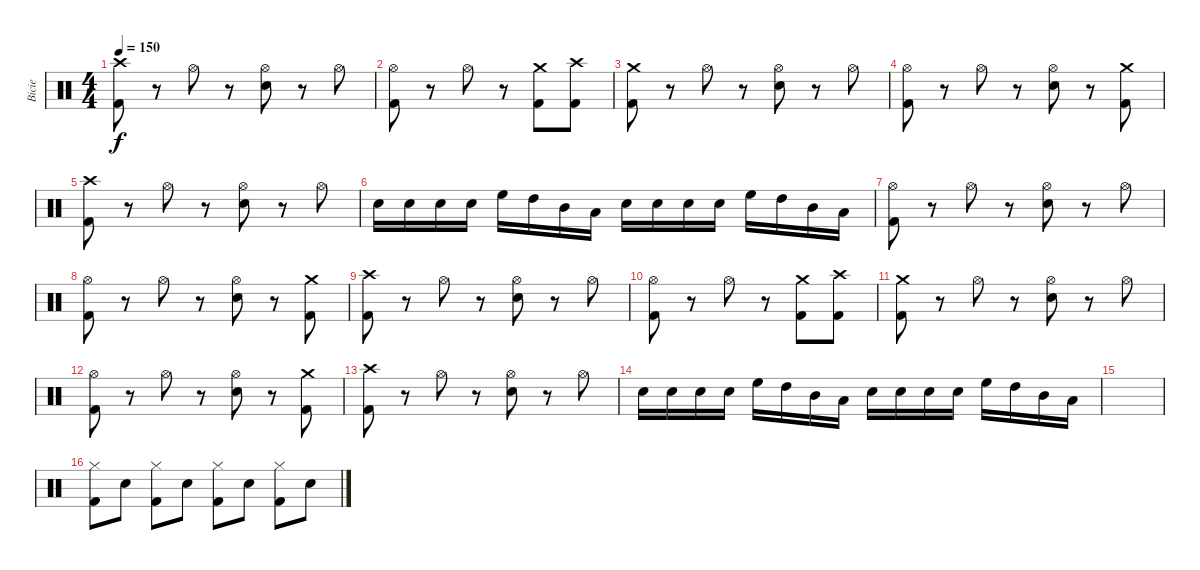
\track ("Bicie" "Bicie") {instrument percussion}
\staff {score}
\articulation defaults
\ts (4 4)
\tempo 150
\clef neutral
\ks c
("Crash high (hit)" "Kick (hit) 2").8{dy f} r.8 "Hi-Hat (open)".8 r.8 ("Hi-Hat (open)" "Snare (hit) 2").8 r.8 "Hi-Hat (open)".8 |
("Hi-Hat (open)" "Kick (hit) 2").8 r.8 "Hi-Hat (open)".8 r.8 ("Crash medium (hit)" "Kick (hit) 2").8 ("Crash high (hit)" "Kick (hit) 2").8 |
("Crash medium (hit)" "Kick (hit) 2").8 r.8 "Hi-Hat (open)".8 r.8 ("Hi-Hat (open)" "Snare (hit) 2").8 r.8 "Hi-Hat (open)".8 |
("Hi-Hat (open)" "Kick (hit) 2").8 r.8 "Hi-Hat (open)".8 r.8 ("Hi-Hat (open)" "Snare (hit) 2").8 r.8 ("Crash medium (hit)" "Kick (hit) 2").8 |
("Crash high (hit)" "Kick (hit) 2").8 r.8 "Hi-Hat (open)".8 r.8 ("Hi-Hat (open)" "Snare (hit) 2").8 r.8 "Hi-Hat (open)".8 |
"Snare (hit) 2".16 "Snare (hit) 2".16 "Snare (hit) 2".16 "Snare (hit) 2".16 "High Floor Tom (hit)".16 "High Tom (hit)".16 "Mid Tom (hit)".16 "Low Tom (hit)".16 "Snare (hit) 2".16 "Snare (hit) 2".16 "Snare (hit) 2".16 "Snare (hit) 2".16 "High Floor Tom (hit)".16 "High Tom (hit)".16 "Mid Tom (hit)".16 "Low Tom (hit)".16 |
("Hi-Hat (open)" "Kick (hit) 2").8 r.8 "Hi-Hat (open)".8 r.8 ("Hi-Hat (open)" "Snare (hit) 2").8 r.8 "Hi-Hat (open)".8 |
("Hi-Hat (open)" "Kick (hit) 2").8 r.8 "Hi-Hat (open)".8 r.8 ("Hi-Hat (open)" "Snare (hit) 2").8 r.8 ("Crash medium (hit)" "Kick (hit) 2").8 |
("Crash high (hit)" "Kick (hit) 2").8 r.8 "Hi-Hat (open)".8 r.8 ("Hi-Hat (open)" "Snare (hit) 2").8 r.8 "Hi-Hat (open)".8 |
("Hi-Hat (open)" "Kick (hit) 2").8 r.8 "Hi-Hat (open)".8 r.8 ("Crash medium (hit)" "Kick (hit) 2").8 ("Crash high (hit)" "Kick (hit) 2").8 |
("Crash medium (hit)" "Kick (hit) 2").8 r.8 "Hi-Hat (open)".8 r.8 ("Hi-Hat (open)" "Snare (hit) 2").8 r.8 "Hi-Hat (open)".8 |
("Hi-Hat (open)" "Kick (hit) 2").8 r.8 "Hi-Hat (open)".8 r.8 ("Hi-Hat (open)" "Snare (hit) 2").8 r.8 ("Crash medium (hit)" "Kick (hit) 2").8 |
("Crash high (hit)" "Kick (hit) 2").8 r.8 "Hi-Hat (open)".8 r.8 ("Hi-Hat (open)" "Snare (hit) 2").8 r.8 "Hi-Hat (open)".8 |
"Snare (hit) 2".16 "Snare (hit) 2".16 "Snare (hit) 2".16 "Snare (hit) 2".16 "High Floor Tom (hit)".16 "High Tom (hit)".16 "Mid Tom (hit)".16 "Low Tom (hit)".16 "Snare (hit) 2".16 "Snare (hit) 2".16 "Snare (hit) 2".16 "Snare (hit) 2".16 "High Floor Tom (hit)".16 "High Tom (hit)".16 "Mid Tom (hit)".16 "Low Tom (hit)".16 |
|
("Hi-Hat (closed)" "Kick (hit) 2").8 "Snare (hit) 2".8 ("Hi-Hat (closed)" "Kick (hit) 2").8 "Snare (hit) 2".8 ("Hi-Hat (closed)" "Kick (hit) 2").8 "Snare (hit) 2".8 ("Hi-Hat (closed)" "Kick (hit) 2").8 "Snare (hit) 2".8
